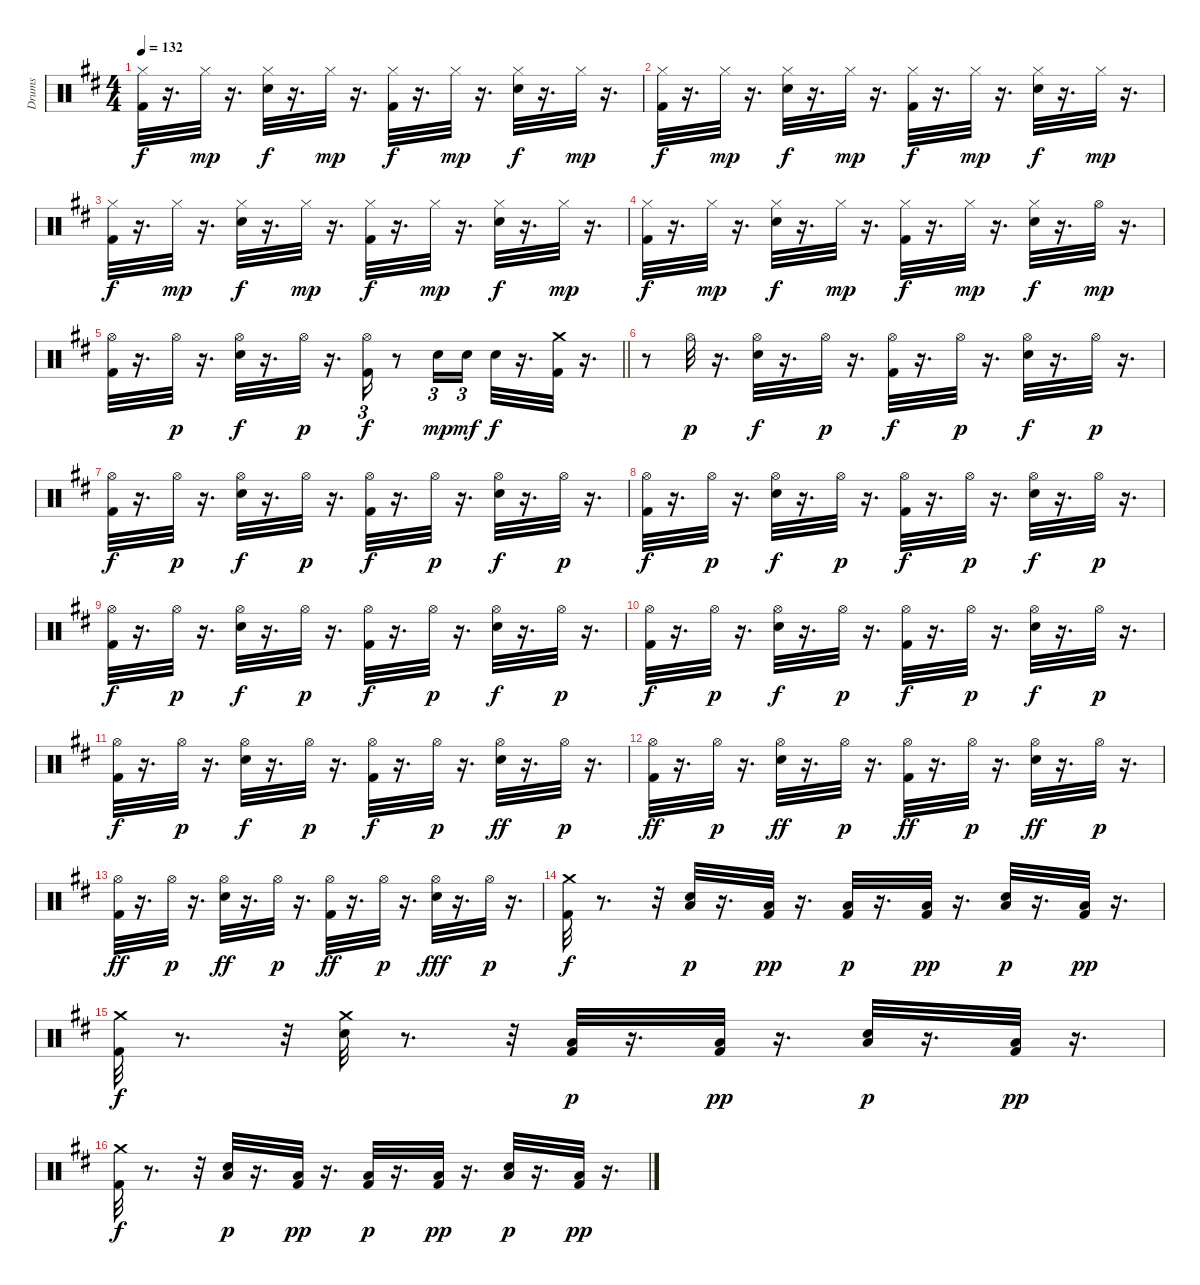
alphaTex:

\track ("Drums" "Drums") {instrument percussion}
\staff {score}
\articulation defaults
\ts (4 4)
\tempo 132
\clef neutral
\ks d
("Hi-Hat (closed)" "Kick (hit) 2").32{dy f} r.16{d} "Hi-Hat (closed)".32{dy mp} r.16{d} ("Hi-Hat (closed)" "Electric Snare (hit)").32{dy f} r.16{d} "Hi-Hat (closed)".32{dy mp} r.16{d} ("Hi-Hat (closed)" "Kick (hit) 2").32{dy f} r.16{d} "Hi-Hat (closed)".32{dy mp} r.16{d} ("Hi-Hat (closed)" "Electric Snare (hit)").32{dy f} r.16{d} "Hi-Hat (closed)".32{dy mp} r.16{d} |
("Hi-Hat (closed)" "Kick (hit) 2").32{dy f} r.16{d} "Hi-Hat (closed)".32{dy mp} r.16{d} ("Hi-Hat (closed)" "Electric Snare (hit)").32{dy f} r.16{d} "Hi-Hat (closed)".32{dy mp} r.16{d} ("Hi-Hat (closed)" "Kick (hit) 2").32{dy f} r.16{d} "Hi-Hat (closed)".32{dy mp} r.16{d} ("Hi-Hat (closed)" "Electric Snare (hit)").32{dy f} r.16{d} "Hi-Hat (closed)".32{dy mp} r.16{d} |
("Hi-Hat (closed)" "Kick (hit) 2").32{dy f} r.16{d} "Hi-Hat (closed)".32{dy mp} r.16{d} ("Hi-Hat (closed)" "Electric Snare (hit)").32{dy f} r.16{d} "Hi-Hat (closed)".32{dy mp} r.16{d} ("Hi-Hat (closed)" "Kick (hit) 2").32{dy f} r.16{d} "Hi-Hat (closed)".32{dy mp} r.16{d} ("Hi-Hat (closed)" "Electric Snare (hit)").32{dy f} r.16{d} "Hi-Hat (closed)".32{dy mp} r.16{d} |
("Hi-Hat (closed)" "Kick (hit) 2").32{dy f} r.16{d} "Hi-Hat (closed)".32{dy mp} r.16{d} ("Hi-Hat (closed)" "Electric Snare (hit)").32{dy f} r.16{d} "Hi-Hat (closed)".32{dy mp} r.16{d} ("Hi-Hat (closed)" "Kick (hit) 2").32{dy f} r.16{d} "Hi-Hat (closed)".32{dy mp} r.16{d} ("Hi-Hat (closed)" "Electric Snare (hit)").32{dy f} r.16{d} "Hi-Hat (open)".32{dy mp} r.16{d} |
\barLineRight lightlight
("Hi-Hat (open)" "Kick (hit) 2").32 r.16{d} "Hi-Hat (open)".32{dy p} r.16{d} ("Hi-Hat (open)" "Electric Snare (hit)").32{dy f} r.16{d} "Hi-Hat (open)".32{dy p} r.16{d} ("Hi-Hat (open)" "Kick (hit) 2").16{tu (3 2) dy f} r.8 "Electric Snare (hit)".16{tu (3 2) dy mp} "Electric Snare (hit)".16{tu (3 2) dy mf} "Electric Snare (hit)".32{dy f} r.16{d} ("Crash medium (hit)" "Kick (hit) 2").32 r.16{d} |
r.8 "Hi-Hat (open)".32{dy p} r.16{d} ("Hi-Hat (open)" "Electric Snare (hit)").32{dy f} r.16{d} "Hi-Hat (open)".32{dy p} r.16{d} ("Hi-Hat (open)" "Kick (hit) 2").32{dy f} r.16{d} "Hi-Hat (open)".32{dy p} r.16{d} ("Hi-Hat (open)" "Electric Snare (hit)").32{dy f} r.16{d} "Hi-Hat (open)".32{dy p} r.16{d} |
("Hi-Hat (open)" "Kick (hit) 2").32{dy f} r.16{d} "Hi-Hat (open)".32{dy p} r.16{d} ("Hi-Hat (open)" "Electric Snare (hit)").32{dy f} r.16{d} "Hi-Hat (open)".32{dy p} r.16{d} ("Hi-Hat (open)" "Kick (hit) 2").32{dy f} r.16{d} "Hi-Hat (open)".32{dy p} r.16{d} ("Hi-Hat (open)" "Electric Snare (hit)").32{dy f} r.16{d} "Hi-Hat (open)".32{dy p} r.16{d} |
("Hi-Hat (open)" "Kick (hit) 2").32{dy f} r.16{d} "Hi-Hat (open)".32{dy p} r.16{d} ("Hi-Hat (open)" "Electric Snare (hit)").32{dy f} r.16{d} "Hi-Hat (open)".32{dy p} r.16{d} ("Hi-Hat (open)" "Kick (hit) 2").32{dy f} r.16{d} "Hi-Hat (open)".32{dy p} r.16{d} ("Hi-Hat (open)" "Electric Snare (hit)").32{dy f} r.16{d} "Hi-Hat (open)".32{dy p} r.16{d} |
("Hi-Hat (open)" "Kick (hit) 2").32{dy f} r.16{d} "Hi-Hat (open)".32{dy p} r.16{d} ("Hi-Hat (open)" "Electric Snare (hit)").32{dy f} r.16{d} "Hi-Hat (open)".32{dy p} r.16{d} ("Hi-Hat (open)" "Kick (hit) 2").32{dy f} r.16{d} "Hi-Hat (open)".32{dy p} r.16{d} ("Hi-Hat (open)" "Electric Snare (hit)").32{dy f} r.16{d} "Hi-Hat (open)".32{dy p} r.16{d} |
("Hi-Hat (open)" "Kick (hit) 2").32{dy f} r.16{d} "Hi-Hat (open)".32{dy p} r.16{d} ("Hi-Hat (open)" "Electric Snare (hit)").32{dy f} r.16{d} "Hi-Hat (open)".32{dy p} r.16{d} ("Hi-Hat (open)" "Kick (hit) 2").32{dy f} r.16{d} "Hi-Hat (open)".32{dy p} r.16{d} ("Hi-Hat (open)" "Electric Snare (hit)").32{dy f} r.16{d} "Hi-Hat (open)".32{dy p} r.16{d} |
("Hi-Hat (open)" "Kick (hit) 2").32{dy f} r.16{d} "Hi-Hat (open)".32{dy p} r.16{d} ("Hi-Hat (open)" "Electric Snare (hit)").32{dy f} r.16{d} "Hi-Hat (open)".32{dy p} r.16{d} ("Hi-Hat (open)" "Kick (hit) 2").32{dy f} r.16{d} "Hi-Hat (open)".32{dy p} r.16{d} ("Hi-Hat (open)" "Electric Snare (hit)").32{dy ff} r.16{d} "Hi-Hat (open)".32{dy p} r.16{d} |
("Hi-Hat (open)" "Kick (hit) 2").32{dy ff} r.16{d} "Hi-Hat (open)".32{dy p} r.16{d} ("Hi-Hat (open)" "Electric Snare (hit)").32{dy ff} r.16{d} "Hi-Hat (open)".32{dy p} r.16{d} ("Hi-Hat (open)" "Kick (hit) 2").32{dy ff} r.16{d} "Hi-Hat (open)".32{dy p} r.16{d} ("Hi-Hat (open)" "Electric Snare (hit)").32{dy ff} r.16{d} "Hi-Hat (open)".32{dy p} r.16{d} |
("Hi-Hat (open)" "Kick (hit) 2").32{dy ff} r.16{d} "Hi-Hat (open)".32{dy p} r.16{d} ("Hi-Hat (open)" "Electric Snare (hit)").32{dy ff} r.16{d} "Hi-Hat (open)".32{dy p} r.16{d} ("Hi-Hat (open)" "Kick (hit) 2").32{dy ff} r.16{d} "Hi-Hat (open)".32{dy p} r.16{d} ("Hi-Hat (open)" "Electric Snare (hit)").32{dy fff} r.16{d} "Hi-Hat (open)".32{dy p} r.16{d} |
("Kick (hit) 2" "Crash medium (hit)").32{dy f} r.8{d} r.32 ("Low Floor Tom (hit)" "Electric Snare (hit)").32{dy p} r.16{d} ("Kick (hit) 2" "Low Floor Tom (hit)").32{dy pp} r.16{d} ("Kick (hit) 2" "Low Floor Tom (hit)").32{dy p} r.16{d} ("Kick (hit) 2" "Low Floor Tom (hit)").32{dy pp} r.16{d} ("Low Floor Tom (hit)" "Electric Snare (hit)").32{dy p} r.16{d} ("Kick (hit) 2" "Low Floor Tom (hit)").32{dy pp} r.16{d} |
("Kick (hit) 2" "Crash medium (hit)").32{dy f} r.8{d} r.32 ("Electric Snare (hit)" "Crash medium (hit)").32 r.8{d} r.32 ("Low Floor Tom (hit)" "Kick (hit) 2").32{dy p} r.16{d} ("Kick (hit) 2" "Low Floor Tom (hit)").32{dy pp} r.16{d} ("Low Floor Tom (hit)" "Electric Snare (hit)").32{dy p} r.16{d} ("Kick (hit) 2" "Low Floor Tom (hit)").32{dy pp} r.16{d} |
("Kick (hit) 2" "Crash medium (hit)").32{dy f} r.8{d} r.32 ("Low Floor Tom (hit)" "Electric Snare (hit)").32{dy p} r.16{d} ("Kick (hit) 2" "Low Floor Tom (hit)").32{dy pp} r.16{d} ("Kick (hit) 2" "Low Floor Tom (hit)").32{dy p} r.16{d} ("Kick (hit) 2" "Low Floor Tom (hit)").32{dy pp} r.16{d} ("Low Floor Tom (hit)" "Electric Snare (hit)").32{dy p} r.16{d} ("Kick (hit) 2" "Low Floor Tom (hit)").32{dy pp} r.16{d}
